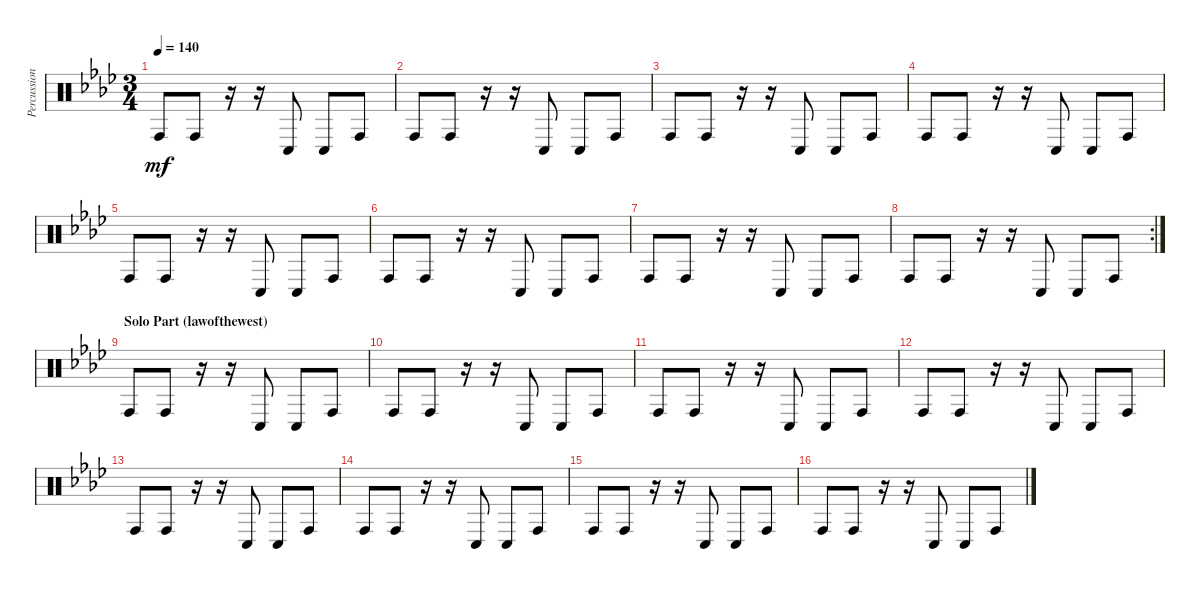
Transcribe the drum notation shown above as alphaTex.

\track ("Percussion" "Percussion") {instrument percussion}
\staff {score}
\articulation defaults
\ts (3 4)
\tempo 140
\clef neutral
\ks fminor "Conga high (hit)".8{dy mf} "Conga high (hit)".8
r.16 r.16 "Conga low (hit)".8 "Conga low (hit)".8 "Conga high (hit)".8 |
"Conga high (hit)".8 "Conga high (hit)".8 r.16 r.16 "Conga low (hit)".8 "Conga low (hit)".8 "Conga high (hit)".8 |
"Conga high (hit)".8 "Conga high (hit)".8 r.16 r.16 "Conga low (hit)".8 "Conga low (hit)".8 "Conga high (hit)".8 |
"Conga high (hit)".8 "Conga high (hit)".8 r.16 r.16 "Conga low (hit)".8 "Conga low (hit)".8 "Conga high (hit)".8 |
"Conga high (hit)".8 "Conga high (hit)".8 r.16 r.16 "Conga low (hit)".8 "Conga low (hit)".8 "Conga high (hit)".8 |
"Conga high (hit)".8 "Conga high (hit)".8 r.16 r.16 "Conga low (hit)".8 "Conga low (hit)".8 "Conga high (hit)".8 |
"Conga high (hit)".8 "Conga high (hit)".8 r.16 r.16 "Conga low (hit)".8 "Conga low (hit)".8 "Conga high (hit)".8 |
\rc 2 "Conga high (hit)".8 "Conga high (hit)".8
r.16 r.16 "Conga low (hit)".8 "Conga low (hit)".8 "Conga high (hit)".8 |
\section ("" "Solo Part (lawofthewest)")
"Conga high (hit)".8 "Conga high (hit)".8 r.16 r.16 "Conga low (hit)".8 "Conga low (hit)".8 "Conga high (hit)".8 |
"Conga high (hit)".8 "Conga high (hit)".8 r.16 r.16 "Conga low (hit)".8 "Conga low (hit)".8 "Conga high (hit)".8 |
"Conga high (hit)".8 "Conga high (hit)".8 r.16 r.16 "Conga low (hit)".8 "Conga low (hit)".8 "Conga high (hit)".8 |
"Conga high (hit)".8 "Conga high (hit)".8 r.16 r.16 "Conga low (hit)".8 "Conga low (hit)".8 "Conga high (hit)".8 |
"Conga high (hit)".8 "Conga high (hit)".8 r.16 r.16 "Conga low (hit)".8 "Conga low (hit)".8 "Conga high (hit)".8 |
"Conga high (hit)".8 "Conga high (hit)".8 r.16 r.16 "Conga low (hit)".8 "Conga low (hit)".8 "Conga high (hit)".8 |
"Conga high (hit)".8 "Conga high (hit)".8 r.16 r.16 "Conga low (hit)".8 "Conga low (hit)".8 "Conga high (hit)".8 |
"Conga high (hit)".8 "Conga high (hit)".8 r.16 r.16 "Conga low (hit)".8 "Conga low (hit)".8 "Conga high (hit)".8
